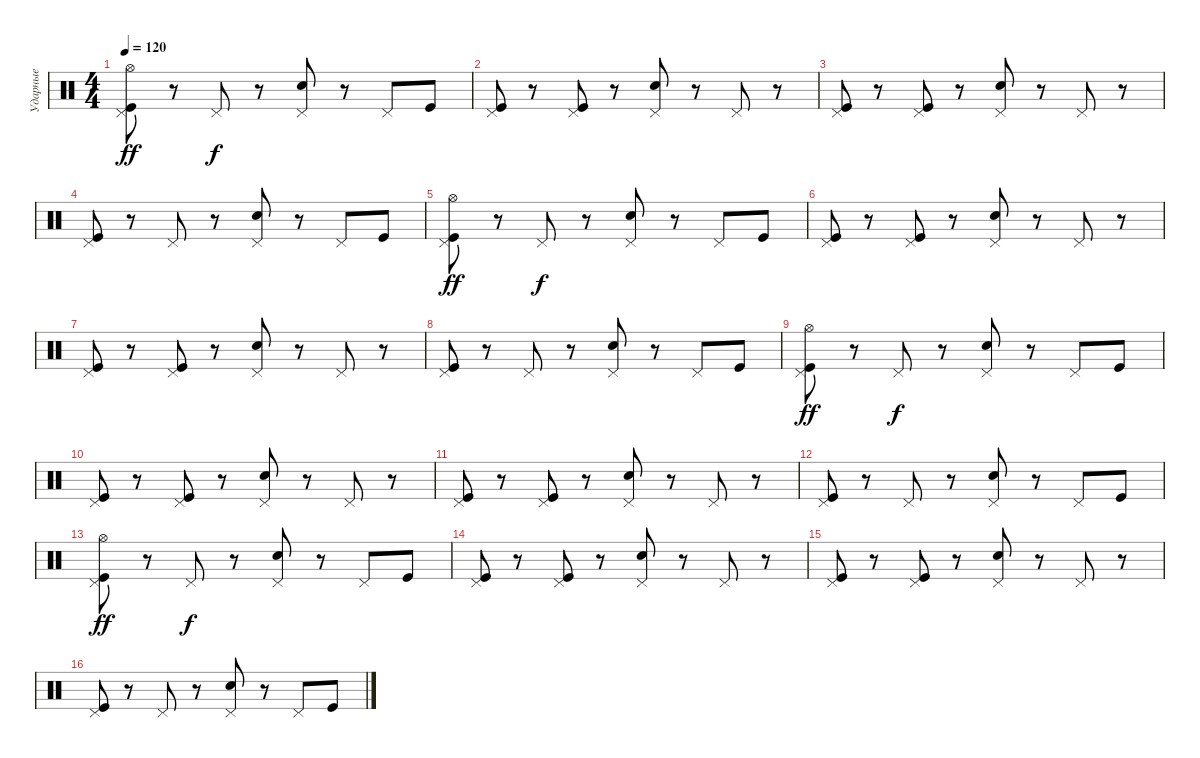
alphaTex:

\track ("Ударные" "Ударные") {instrument percussion}
\staff {score}
\articulation defaults
\ts (4 4)
\tempo 120
\clef neutral
\ks c
("Kick (hit)" "Pedal Hi-Hat (hit)" "Hi-Hat (open)").8{dy ff} r.8 "Pedal Hi-Hat (hit)".8{dy f} r.8 ("Snare (hit) 2" "Pedal Hi-Hat (hit)").8 r.8 "Pedal Hi-Hat (hit)".8 "Kick (hit)".8 |
("Pedal Hi-Hat (hit)" "Kick (hit)").8 r.8 ("Kick (hit)" "Pedal Hi-Hat (hit)").8 r.8 ("Snare (hit) 2" "Pedal Hi-Hat (hit)").8 r.8 "Pedal Hi-Hat (hit)".8 r.8 |
("Pedal Hi-Hat (hit)" "Kick (hit)").8 r.8 ("Kick (hit)" "Pedal Hi-Hat (hit)").8 r.8 ("Snare (hit) 2" "Pedal Hi-Hat (hit)").8 r.8 "Pedal Hi-Hat (hit)".8 r.8 |
("Kick (hit)" "Pedal Hi-Hat (hit)").8 r.8 "Pedal Hi-Hat (hit)".8 r.8 ("Snare (hit) 2" "Pedal Hi-Hat (hit)").8 r.8 "Pedal Hi-Hat (hit)".8 "Kick (hit)".8 |
("Kick (hit)" "Pedal Hi-Hat (hit)" "Hi-Hat (open)").8{dy ff} r.8 "Pedal Hi-Hat (hit)".8{dy f} r.8 ("Snare (hit) 2" "Pedal Hi-Hat (hit)").8 r.8 "Pedal Hi-Hat (hit)".8 "Kick (hit)".8 |
("Pedal Hi-Hat (hit)" "Kick (hit)").8 r.8 ("Kick (hit)" "Pedal Hi-Hat (hit)").8 r.8 ("Snare (hit) 2" "Pedal Hi-Hat (hit)").8 r.8 "Pedal Hi-Hat (hit)".8 r.8 |
("Pedal Hi-Hat (hit)" "Kick (hit)").8 r.8 ("Kick (hit)" "Pedal Hi-Hat (hit)").8 r.8 ("Snare (hit) 2" "Pedal Hi-Hat (hit)").8 r.8 "Pedal Hi-Hat (hit)".8 r.8 |
("Kick (hit)" "Pedal Hi-Hat (hit)").8 r.8 "Pedal Hi-Hat (hit)".8 r.8 ("Snare (hit) 2" "Pedal Hi-Hat (hit)").8 r.8 "Pedal Hi-Hat (hit)".8 "Kick (hit)".8 |
("Kick (hit)" "Pedal Hi-Hat (hit)" "Hi-Hat (open)").8{dy ff} r.8 "Pedal Hi-Hat (hit)".8{dy f} r.8 ("Snare (hit) 2" "Pedal Hi-Hat (hit)").8 r.8 "Pedal Hi-Hat (hit)".8 "Kick (hit)".8 |
("Pedal Hi-Hat (hit)" "Kick (hit)").8 r.8 ("Kick (hit)" "Pedal Hi-Hat (hit)").8 r.8 ("Snare (hit) 2" "Pedal Hi-Hat (hit)").8 r.8 "Pedal Hi-Hat (hit)".8 r.8 |
("Pedal Hi-Hat (hit)" "Kick (hit)").8 r.8 ("Kick (hit)" "Pedal Hi-Hat (hit)").8 r.8 ("Snare (hit) 2" "Pedal Hi-Hat (hit)").8 r.8 "Pedal Hi-Hat (hit)".8 r.8 |
("Kick (hit)" "Pedal Hi-Hat (hit)").8 r.8 "Pedal Hi-Hat (hit)".8 r.8 ("Snare (hit) 2" "Pedal Hi-Hat (hit)").8 r.8 "Pedal Hi-Hat (hit)".8 "Kick (hit)".8 |
("Kick (hit)" "Pedal Hi-Hat (hit)" "Hi-Hat (open)").8{dy ff} r.8 "Pedal Hi-Hat (hit)".8{dy f} r.8 ("Snare (hit) 2" "Pedal Hi-Hat (hit)").8 r.8 "Pedal Hi-Hat (hit)".8 "Kick (hit)".8 |
("Pedal Hi-Hat (hit)" "Kick (hit)").8 r.8 ("Kick (hit)" "Pedal Hi-Hat (hit)").8 r.8 ("Snare (hit) 2" "Pedal Hi-Hat (hit)").8 r.8 "Pedal Hi-Hat (hit)".8 r.8 |
("Pedal Hi-Hat (hit)" "Kick (hit)").8 r.8 ("Kick (hit)" "Pedal Hi-Hat (hit)").8 r.8 ("Snare (hit) 2" "Pedal Hi-Hat (hit)").8 r.8 "Pedal Hi-Hat (hit)".8 r.8 |
("Kick (hit)" "Pedal Hi-Hat (hit)").8 r.8 "Pedal Hi-Hat (hit)".8 r.8 ("Snare (hit) 2" "Pedal Hi-Hat (hit)").8 r.8 "Pedal Hi-Hat (hit)".8 "Kick (hit)".8
